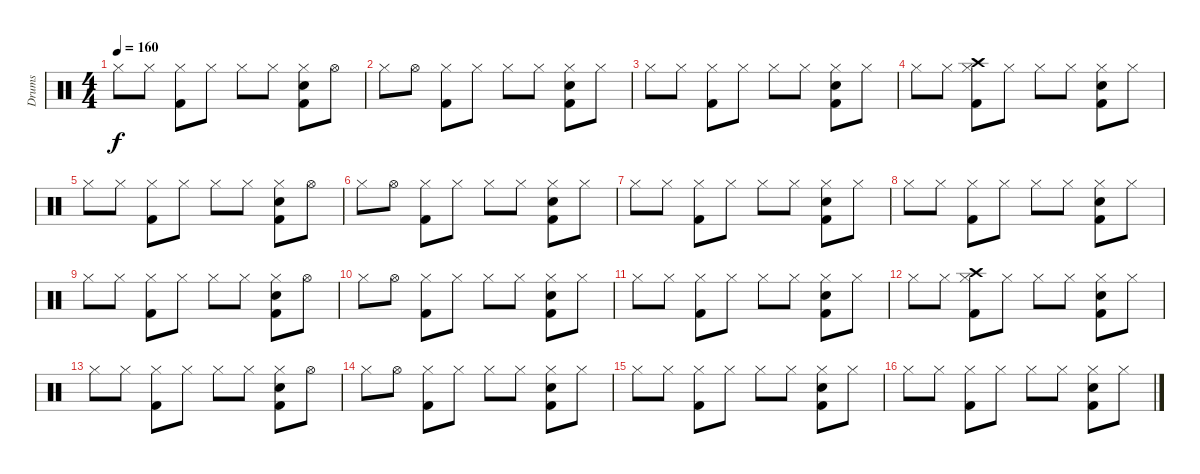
\track ("Drums" "Drums") {instrument percussion}
\staff {score}
\articulation defaults
\ts (4 4)
\tempo 160
\clef neutral
\ks c "Hi-Hat (closed)".8{dy f} "Hi-Hat (closed)".8
("Kick (hit) 2" "Hi-Hat (closed)").8 "Hi-Hat (closed)".8 "Hi-Hat (closed)".8 "Hi-Hat (closed)".8 ("Snare (hit) 2" "Kick (hit) 2" "Hi-Hat (closed)").8 "Hi-Hat (open)".8 |
"Hi-Hat (closed)".8 "Hi-Hat (open)".8 ("Kick (hit) 2" "Hi-Hat (closed)").8 "Hi-Hat (closed)".8 "Hi-Hat (closed)".8 "Hi-Hat (closed)".8 ("Snare (hit) 2" "Kick (hit) 2" "Hi-Hat (closed)").8 "Hi-Hat (closed)".8 |
"Hi-Hat (closed)".8 "Hi-Hat (closed)".8 ("Kick (hit) 2" "Hi-Hat (closed)").8 "Hi-Hat (closed)".8 "Hi-Hat (closed)".8 "Hi-Hat (closed)".8 ("Snare (hit) 2" "Kick (hit) 2" "Hi-Hat (closed)").8 "Hi-Hat (closed)".8 |
"Hi-Hat (closed)".8 "Hi-Hat (closed)".8 ("Crash high (hit)" "Kick (hit) 2" "Hi-Hat (closed)").8 "Hi-Hat (closed)".8 "Hi-Hat (closed)".8 "Hi-Hat (closed)".8 ("Snare (hit) 2" "Kick (hit) 2" "Hi-Hat (closed)").8 "Hi-Hat (closed)".8 |
"Hi-Hat (closed)".8 "Hi-Hat (closed)".8 ("Kick (hit) 2" "Hi-Hat (closed)").8 "Hi-Hat (closed)".8 "Hi-Hat (closed)".8 "Hi-Hat (closed)".8 ("Snare (hit) 2" "Kick (hit) 2" "Hi-Hat (closed)").8 "Hi-Hat (open)".8 |
"Hi-Hat (closed)".8 "Hi-Hat (open)".8 ("Kick (hit) 2" "Hi-Hat (closed)").8 "Hi-Hat (closed)".8 "Hi-Hat (closed)".8 "Hi-Hat (closed)".8 ("Snare (hit) 2" "Kick (hit) 2" "Hi-Hat (closed)").8 "Hi-Hat (closed)".8 |
"Hi-Hat (closed)".8 "Hi-Hat (closed)".8 ("Kick (hit) 2" "Hi-Hat (closed)").8 "Hi-Hat (closed)".8 "Hi-Hat (closed)".8 "Hi-Hat (closed)".8 ("Snare (hit) 2" "Kick (hit) 2" "Hi-Hat (closed)").8 "Hi-Hat (closed)".8 |
"Hi-Hat (closed)".8 "Hi-Hat (closed)".8 ("Kick (hit) 2" "Hi-Hat (closed)").8 "Hi-Hat (closed)".8 "Hi-Hat (closed)".8 "Hi-Hat (closed)".8 ("Snare (hit) 2" "Kick (hit) 2" "Hi-Hat (closed)").8 "Hi-Hat (closed)".8 |
"Hi-Hat (closed)".8 "Hi-Hat (closed)".8 ("Kick (hit) 2" "Hi-Hat (closed)").8 "Hi-Hat (closed)".8 "Hi-Hat (closed)".8 "Hi-Hat (closed)".8 ("Snare (hit) 2" "Kick (hit) 2" "Hi-Hat (closed)").8 "Hi-Hat (open)".8 |
"Hi-Hat (closed)".8 "Hi-Hat (open)".8 ("Kick (hit) 2" "Hi-Hat (closed)").8 "Hi-Hat (closed)".8 "Hi-Hat (closed)".8 "Hi-Hat (closed)".8 ("Snare (hit) 2" "Kick (hit) 2" "Hi-Hat (closed)").8 "Hi-Hat (closed)".8 |
"Hi-Hat (closed)".8 "Hi-Hat (closed)".8 ("Kick (hit) 2" "Hi-Hat (closed)").8 "Hi-Hat (closed)".8 "Hi-Hat (closed)".8 "Hi-Hat (closed)".8 ("Snare (hit) 2" "Kick (hit) 2" "Hi-Hat (closed)").8 "Hi-Hat (closed)".8 |
"Hi-Hat (closed)".8 "Hi-Hat (closed)".8 ("Crash high (hit)" "Kick (hit) 2" "Hi-Hat (closed)").8 "Hi-Hat (closed)".8 "Hi-Hat (closed)".8 "Hi-Hat (closed)".8 ("Snare (hit) 2" "Kick (hit) 2" "Hi-Hat (closed)").8 "Hi-Hat (closed)".8 |
"Hi-Hat (closed)".8 "Hi-Hat (closed)".8 ("Kick (hit) 2" "Hi-Hat (closed)").8 "Hi-Hat (closed)".8 "Hi-Hat (closed)".8 "Hi-Hat (closed)".8 ("Snare (hit) 2" "Kick (hit) 2" "Hi-Hat (closed)").8 "Hi-Hat (open)".8 |
"Hi-Hat (closed)".8 "Hi-Hat (open)".8 ("Kick (hit) 2" "Hi-Hat (closed)").8 "Hi-Hat (closed)".8 "Hi-Hat (closed)".8 "Hi-Hat (closed)".8 ("Snare (hit) 2" "Kick (hit) 2" "Hi-Hat (closed)").8 "Hi-Hat (closed)".8 |
"Hi-Hat (closed)".8 "Hi-Hat (closed)".8 ("Kick (hit) 2" "Hi-Hat (closed)").8 "Hi-Hat (closed)".8 "Hi-Hat (closed)".8 "Hi-Hat (closed)".8 ("Snare (hit) 2" "Kick (hit) 2" "Hi-Hat (closed)").8 "Hi-Hat (closed)".8 |
"Hi-Hat (closed)".8 "Hi-Hat (closed)".8 ("Kick (hit) 2" "Hi-Hat (closed)").8 "Hi-Hat (closed)".8 "Hi-Hat (closed)".8 "Hi-Hat (closed)".8 ("Snare (hit) 2" "Kick (hit) 2" "Hi-Hat (closed)").8 "Hi-Hat (closed)".8
